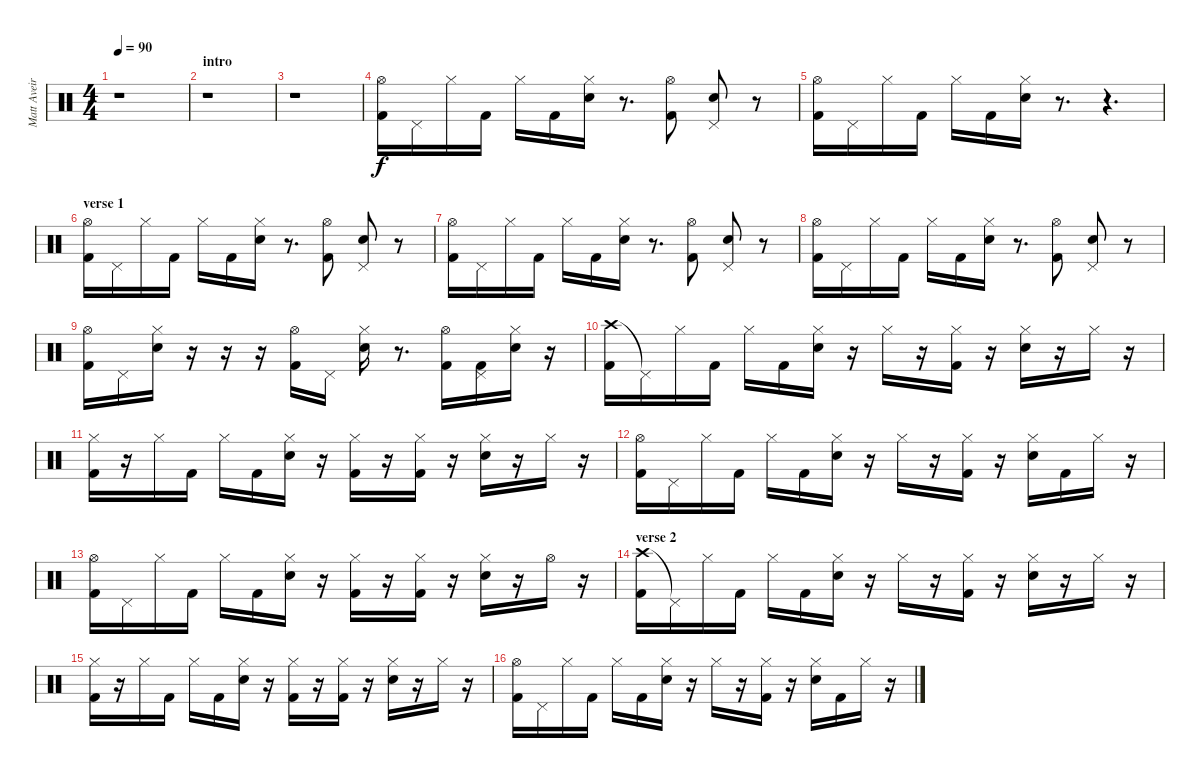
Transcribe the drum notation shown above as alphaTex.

\track ("Matt Aveiro-drums" "Matt Aveir") {instrument percussion}
\staff {score}
\articulation defaults
\ts (4 4)
\tempo 90
\clef neutral
\ks c
r.1{dy f} |
\section ("" "intro")
r.1 |
r.1 |
("Hi-Hat (open)" "Kick (hit) 2").16 "Pedal Hi-Hat (hit)".16 "Hi-Hat (closed)".16 "Kick (hit) 2".16 "Hi-Hat (closed)".16 "Kick (hit) 2".16 ("Hi-Hat (closed)" "Snare (hit) 2").16 r.8{d} ("Hi-Hat (open)" "Kick (hit) 2").8 ("Pedal Hi-Hat (hit)" "Snare (hit) 2").8 r.8 |
("Hi-Hat (open)" "Kick (hit) 2").16 "Pedal Hi-Hat (hit)".16 "Hi-Hat (closed)".16 "Kick (hit) 2".16 "Hi-Hat (closed)".16 "Kick (hit) 2".16 ("Hi-Hat (closed)" "Snare (hit) 2").16 r.8{d} r.4{d} |
\section ("" "verse 1")
("Hi-Hat (open)" "Kick (hit) 2").16 "Pedal Hi-Hat (hit)".16 "Hi-Hat (closed)".16 "Kick (hit) 2".16 "Hi-Hat (closed)".16 "Kick (hit) 2".16 ("Hi-Hat (closed)" "Snare (hit) 2").16 r.8{d} ("Hi-Hat (open)" "Kick (hit) 2").8 ("Pedal Hi-Hat (hit)" "Snare (hit) 2").8 r.8 |
("Hi-Hat (open)" "Kick (hit) 2").16 "Pedal Hi-Hat (hit)".16 "Hi-Hat (closed)".16 "Kick (hit) 2".16 "Hi-Hat (closed)".16 "Kick (hit) 2".16 ("Hi-Hat (closed)" "Snare (hit) 2").16 r.8{d} ("Hi-Hat (open)" "Kick (hit) 2").8 ("Pedal Hi-Hat (hit)" "Snare (hit) 2").8 r.8 |
("Hi-Hat (open)" "Kick (hit) 2").16 "Pedal Hi-Hat (hit)".16 "Hi-Hat (closed)".16 "Kick (hit) 2".16 "Hi-Hat (closed)".16 "Kick (hit) 2".16 ("Hi-Hat (closed)" "Snare (hit) 2").16 r.8{d} ("Hi-Hat (open)" "Kick (hit) 2").8 ("Pedal Hi-Hat (hit)" "Snare (hit) 2").8 r.8 |
("Hi-Hat (open)" "Kick (hit) 2").16 "Pedal Hi-Hat (hit)".16 ("Hi-Hat (closed)" "Snare (hit) 2").16 r.16 r.16 r.16 ("Hi-Hat (open)" "Kick (hit) 2").16 "Pedal Hi-Hat (hit)".16 ("Hi-Hat (closed)" "Snare (hit) 2").16 r.8{d} ("Hi-Hat (open)" "Kick (hit) 2").16 ("Pedal Hi-Hat (hit)" "Kick (hit) 2").16 ("Hi-Hat (closed)" "Snare (hit) 2").16 r.16 |
("Crash high (hit)" "Kick (hit) 2").16 "Pedal Hi-Hat (hit)"{t}.16 "Hi-Hat (closed)".16 "Kick (hit) 2".16 "Hi-Hat (closed)".16 "Kick (hit) 2".16 ("Hi-Hat (closed)" "Snare (hit) 2").16 r.16 "Hi-Hat (closed)".16 r.16 ("Hi-Hat (closed)" "Kick (hit) 2").16 r.16 ("Hi-Hat (closed)" "Snare (hit) 2").16 r.16 "Hi-Hat (closed)".16 r.16 |
("Hi-Hat (closed)" "Kick (hit) 2").16 r.16 "Hi-Hat (closed)".16 "Kick (hit) 2".16 "Hi-Hat (closed)".16 "Kick (hit) 2".16 ("Hi-Hat (closed)" "Snare (hit) 2").16 r.16 ("Hi-Hat (closed)" "Kick (hit) 2").16 r.16 ("Hi-Hat (closed)" "Kick (hit) 2").16 r.16 ("Hi-Hat (closed)" "Snare (hit) 2").16 r.16 "Hi-Hat (closed)".16 r.16 |
("Hi-Hat (open)" "Kick (hit) 2").16 "Pedal Hi-Hat (hit)".16 "Hi-Hat (closed)".16 "Kick (hit) 2".16 "Hi-Hat (closed)".16 "Kick (hit) 2".16 ("Hi-Hat (closed)" "Snare (hit) 2").16 r.16 "Hi-Hat (closed)".16 r.16 ("Hi-Hat (closed)" "Kick (hit) 2").16 r.16 ("Hi-Hat (closed)" "Snare (hit) 2").16 "Kick (hit) 2".16 "Hi-Hat (closed)".16 r.16 |
("Hi-Hat (open)" "Kick (hit) 2").16 "Pedal Hi-Hat (hit)".16 "Hi-Hat (closed)".16 "Kick (hit) 2".16 "Hi-Hat (closed)".16 "Kick (hit) 2".16 ("Hi-Hat (closed)" "Snare (hit) 2").16 r.16 ("Hi-Hat (closed)" "Kick (hit) 2").16 r.16 ("Hi-Hat (closed)" "Kick (hit) 2").16 r.16 ("Hi-Hat (closed)" "Snare (hit) 2").16 r.16 "Hi-Hat (open)".16 r.16 |
\section ("" "verse 2")
("Crash high (hit)" "Kick (hit) 2").16 "Pedal Hi-Hat (hit)"{t}.16 "Hi-Hat (closed)".16 "Kick (hit) 2".16 "Hi-Hat (closed)".16 "Kick (hit) 2".16 ("Hi-Hat (closed)" "Snare (hit) 2").16 r.16 "Hi-Hat (closed)".16 r.16 ("Hi-Hat (closed)" "Kick (hit) 2").16 r.16 ("Hi-Hat (closed)" "Snare (hit) 2").16 r.16 "Hi-Hat (closed)".16 r.16 |
("Hi-Hat (closed)" "Kick (hit) 2").16 r.16 "Hi-Hat (closed)".16 "Kick (hit) 2".16 "Hi-Hat (closed)".16 "Kick (hit) 2".16 ("Hi-Hat (closed)" "Snare (hit) 2").16 r.16 ("Hi-Hat (closed)" "Kick (hit) 2").16 r.16 ("Hi-Hat (closed)" "Kick (hit) 2").16 r.16 ("Hi-Hat (closed)" "Snare (hit) 2").16 r.16 "Hi-Hat (closed)".16 r.16 |
("Hi-Hat (open)" "Kick (hit) 2").16 "Pedal Hi-Hat (hit)".16 "Hi-Hat (closed)".16 "Kick (hit) 2".16 "Hi-Hat (closed)".16 "Kick (hit) 2".16 ("Hi-Hat (closed)" "Snare (hit) 2").16 r.16 "Hi-Hat (closed)".16 r.16 ("Hi-Hat (closed)" "Kick (hit) 2").16 r.16 ("Hi-Hat (closed)" "Snare (hit) 2").16 "Kick (hit) 2".16 "Hi-Hat (closed)".16 r.16
